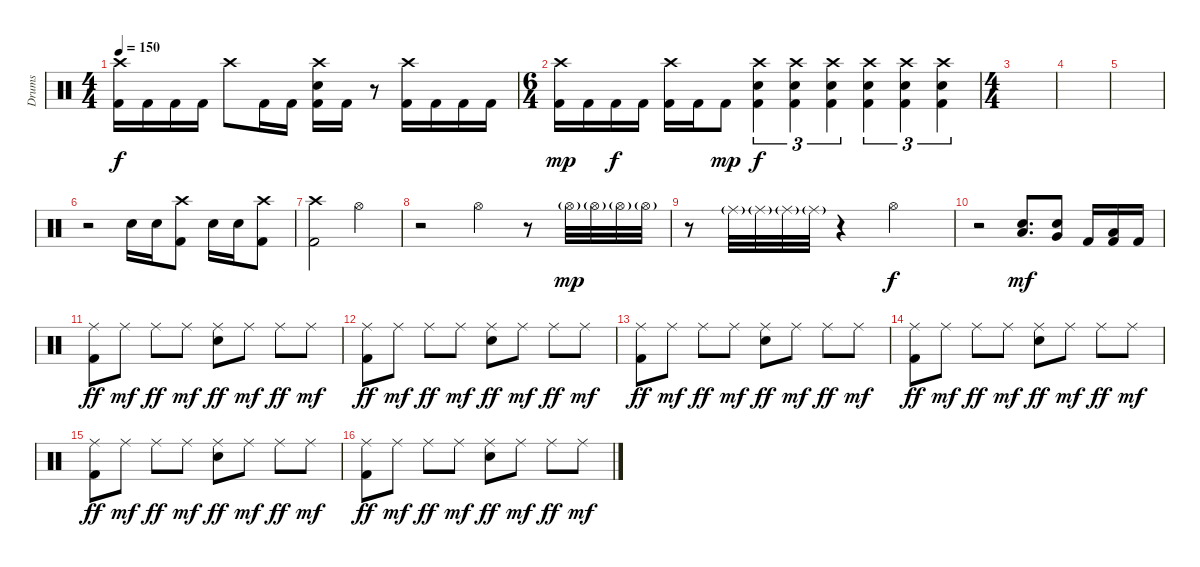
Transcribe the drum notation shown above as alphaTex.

\track ("Drums" "Drums") {instrument percussion}
\staff {score}
\articulation defaults
\ts (4 4)
\tempo 150
\clef neutral
\ks c
("Crash high (hit)" "Kick (hit) 2").16{dy f} "Kick (hit) 2".16 "Kick (hit) 2".16 "Kick (hit) 2".16 "Crash high (hit)".8 "Kick (hit) 2".16 "Kick (hit) 2".16 ("Crash high (hit)" "Electric Snare (hit)" "Kick (hit) 2").16 "Kick (hit) 2".16 r.8 ("Crash high (hit)" "Kick (hit) 2").16 "Kick (hit) 2".16 "Kick (hit) 2".16 "Kick (hit) 2".16 |
\ts (6 4)
("Crash high (hit)" "Kick (hit) 2").16{dy mp} "Kick (hit) 2".16 "Kick (hit) 2".16{dy f} "Kick (hit) 2".16 ("Crash high (hit)" "Kick (hit) 2").16 "Kick (hit) 2".16 "Kick (hit) 2".8{dy mp} ("Crash high (hit)" "Electric Snare (hit)" "Kick (hit) 2").4{tu (3 2) dy f} ("Crash high (hit)" "Electric Snare (hit)" "Kick (hit) 2").4{tu (3 2)} ("Crash high (hit)" "Electric Snare (hit)" "Kick (hit) 2").4{tu (3 2)} ("Crash high (hit)" "Electric Snare (hit)" "Kick (hit) 2").4{tu (3 2)} ("Crash high (hit)" "Electric Snare (hit)" "Kick (hit) 2").4{tu (3 2)} ("Crash high (hit)" "Electric Snare (hit)" "Kick (hit) 2").4{tu (3 2)} |
\ts (4 4)
|
|
|
r.2 "Electric Snare (hit)".16 "Electric Snare (hit)".16 ("Crash high (hit)" "Kick (hit) 2").8 "Electric Snare (hit)".16 "Electric Snare (hit)".16 ("Crash high (hit)" "Kick (hit) 2").8 |
("Crash high (hit)" "Kick (hit) 2").2 "Hi-Hat (open)".2 |
r.2 "Hi-Hat (open)".4 r.8 "Hi-Hat (open)"{g}.32{dy mp} "Hi-Hat (open)"{g}.32 "Hi-Hat (open)"{g}.32 "Hi-Hat (open)"{g}.32 |
r.8 "Ride (middle)"{g}.32 "Ride (middle)"{g}.32 "Ride (middle)"{g}.32 "Ride (middle)"{g}.32 r.4 "Hi-Hat (open)".2{dy f} |
r.2 ("Low Tom (hit)" "Electric Snare (hit)").8{d dy mf} ("Very Low Tom (hit)" "Electric Snare (hit)").8 "Kick (hit) 2".16 ("Low Floor Tom (hit)" "Kick (hit) 2").16 "Kick (hit) 2".16 |
("Ride (middle)" "Kick (hit) 2").8{dy ff} "Ride (middle)".8{dy mf} "Ride (middle)".8{dy ff} "Ride (middle)".8{dy mf} ("Ride (middle)" "Electric Snare (hit)").8{dy ff} "Ride (middle)".8{dy mf} "Ride (middle)".8{dy ff} "Ride (middle)".8{dy mf} |
("Ride (middle)" "Kick (hit) 2").8{dy ff} "Ride (middle)".8{dy mf} "Ride (middle)".8{dy ff} "Ride (middle)".8{dy mf} ("Ride (middle)" "Electric Snare (hit)").8{dy ff} "Ride (middle)".8{dy mf} "Ride (middle)".8{dy ff} "Ride (middle)".8{dy mf} |
("Ride (middle)" "Kick (hit) 2").8{dy ff} "Ride (middle)".8{dy mf} "Ride (middle)".8{dy ff} "Ride (middle)".8{dy mf} ("Ride (middle)" "Electric Snare (hit)").8{dy ff} "Ride (middle)".8{dy mf} "Ride (middle)".8{dy ff} "Ride (middle)".8{dy mf} |
("Ride (middle)" "Kick (hit) 2").8{dy ff} "Ride (middle)".8{dy mf} "Ride (middle)".8{dy ff} "Ride (middle)".8{dy mf} ("Ride (middle)" "Electric Snare (hit)").8{dy ff} "Ride (middle)".8{dy mf} "Ride (middle)".8{dy ff} "Ride (middle)".8{dy mf} |
("Ride (middle)" "Kick (hit) 2").8{dy ff} "Ride (middle)".8{dy mf} "Ride (middle)".8{dy ff} "Ride (middle)".8{dy mf} ("Ride (middle)" "Electric Snare (hit)").8{dy ff} "Ride (middle)".8{dy mf} "Ride (middle)".8{dy ff} "Ride (middle)".8{dy mf} |
("Ride (middle)" "Kick (hit) 2").8{dy ff} "Ride (middle)".8{dy mf} "Ride (middle)".8{dy ff} "Ride (middle)".8{dy mf} ("Ride (middle)" "Electric Snare (hit)").8{dy ff} "Ride (middle)".8{dy mf} "Ride (middle)".8{dy ff} "Ride (middle)".8{dy mf}
